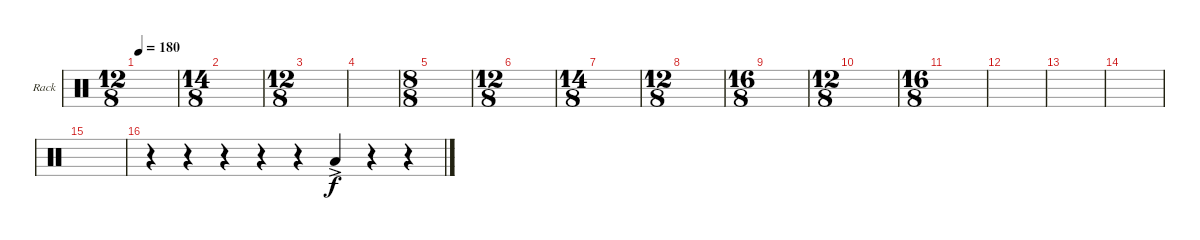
\defaultSystemsLayout 4
\bracketExtendMode groupsimilarinstruments
\firstSystemTrackNameOrientation horizontal
\otherSystemsTrackNameOrientation horizontal
\track ("Rack Toms" "Rack") {instrument percussion}
\staff {score}
\articulation defaults
\ts (12 8)
\tempo 180
\clef neutral
\ks c
|
\ts (14 8)
|
\ts (12 8)
|
|
\ts (8 8)
|
\ts (12 8)
|
\ts (14 8)
|
\ts (12 8)
|
\ts (16 8)
|
\ts (12 8)
|
\ts (16 8)
|
|
|
|
|
r.4 r.4 r.4 r.4 r.4 "Low Tom (hit)"{ac}.4 r.4 r.4
